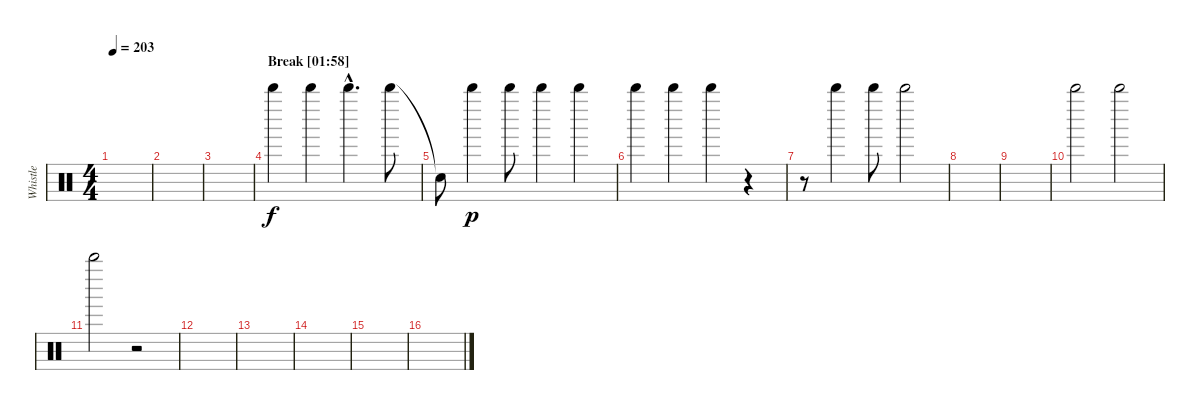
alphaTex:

\track ("Whistle" "Whistle") {instrument percussion}
\staff {score}
\articulation defaults
\ts (4 4)
\tempo 203
\clef neutral
\ks c
|
\section ("" "")
|
|
\section ("" "Break [01:58]")
"Whistle high (hit)".4{balance 13} "Whistle high (hit)".4 "Whistle high (hit)"{hac}.4{d} "Whistle high (hit)".8 |
"Snare (hit)"{t}.8{dy f} "Whistle high (hit)".4{dy p} "Whistle high (hit)".8 "Whistle high (hit)".4 "Whistle high (hit)".4 |
"Whistle high (hit)".4 "Whistle high (hit)".4 "Whistle high (hit)".4 r.4 |
r.8 "Whistle high (hit)".4 "Whistle high (hit)".8 "Whistle high (hit)".2 |
|
|
"Whistle high (hit)".2 "Whistle high (hit)".2 |
"Whistle high (hit)".2 r.2 |
\section ("" "")
|
|
|
|
\section ("" "")
